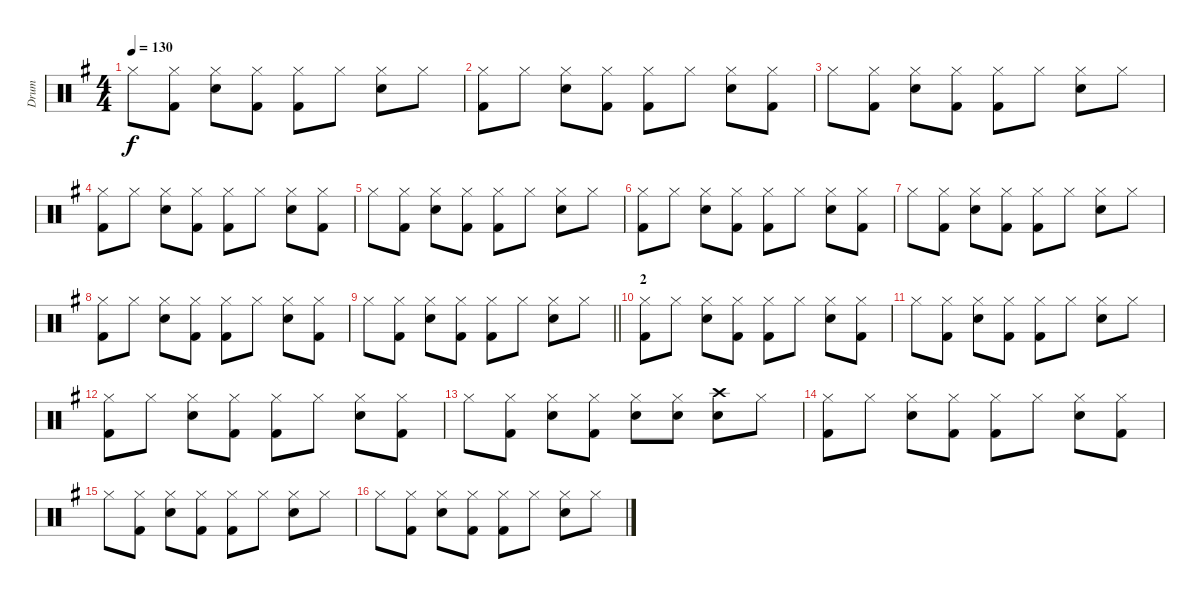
\track ("Drum" "Drum") {instrument percussion}
\staff {score}
\articulation defaults
\ts (4 4)
\tempo 130
\clef neutral
\ks g "Hi-Hat (closed)".8{dy f}
("Kick (hit) 2" "Hi-Hat (closed)").8 ("Hi-Hat (closed)" "Electric Snare (hit)").8 ("Kick (hit) 2" "Hi-Hat (closed)").8 ("Kick (hit) 2" "Hi-Hat (closed)").8 "Hi-Hat (closed)".8 ("Hi-Hat (closed)" "Electric Snare (hit)").8 "Hi-Hat (closed)".8 |
("Kick (hit) 2" "Hi-Hat (closed)").8 "Hi-Hat (closed)".8 ("Hi-Hat (closed)" "Electric Snare (hit)").8 ("Kick (hit) 2" "Hi-Hat (closed)").8 ("Kick (hit) 2" "Hi-Hat (closed)").8 "Hi-Hat (closed)".8 ("Hi-Hat (closed)" "Electric Snare (hit)").8 ("Kick (hit) 2" "Hi-Hat (closed)").8 |
"Hi-Hat (closed)".8 ("Kick (hit) 2" "Hi-Hat (closed)").8 ("Hi-Hat (closed)" "Electric Snare (hit)").8 ("Kick (hit) 2" "Hi-Hat (closed)").8 ("Kick (hit) 2" "Hi-Hat (closed)").8 "Hi-Hat (closed)".8 ("Hi-Hat (closed)" "Electric Snare (hit)").8 "Hi-Hat (closed)".8 |
("Kick (hit) 2" "Hi-Hat (closed)").8 "Hi-Hat (closed)".8 ("Hi-Hat (closed)" "Electric Snare (hit)").8 ("Kick (hit) 2" "Hi-Hat (closed)").8 ("Kick (hit) 2" "Hi-Hat (closed)").8 "Hi-Hat (closed)".8 ("Hi-Hat (closed)" "Electric Snare (hit)").8 ("Kick (hit) 2" "Hi-Hat (closed)").8 |
"Hi-Hat (closed)".8 ("Kick (hit) 2" "Hi-Hat (closed)").8 ("Hi-Hat (closed)" "Electric Snare (hit)").8 ("Kick (hit) 2" "Hi-Hat (closed)").8 ("Kick (hit) 2" "Hi-Hat (closed)").8 "Hi-Hat (closed)".8 ("Hi-Hat (closed)" "Electric Snare (hit)").8 "Hi-Hat (closed)".8 |
("Kick (hit) 2" "Hi-Hat (closed)").8 "Hi-Hat (closed)".8 ("Hi-Hat (closed)" "Electric Snare (hit)").8 ("Kick (hit) 2" "Hi-Hat (closed)").8 ("Kick (hit) 2" "Hi-Hat (closed)").8 "Hi-Hat (closed)".8 ("Hi-Hat (closed)" "Electric Snare (hit)").8 ("Kick (hit) 2" "Hi-Hat (closed)").8 |
"Hi-Hat (closed)".8 ("Kick (hit) 2" "Hi-Hat (closed)").8 ("Hi-Hat (closed)" "Electric Snare (hit)").8 ("Kick (hit) 2" "Hi-Hat (closed)").8 ("Kick (hit) 2" "Hi-Hat (closed)").8 "Hi-Hat (closed)".8 ("Hi-Hat (closed)" "Electric Snare (hit)").8 "Hi-Hat (closed)".8 |
("Kick (hit) 2" "Hi-Hat (closed)").8 "Hi-Hat (closed)".8 ("Hi-Hat (closed)" "Electric Snare (hit)").8 ("Kick (hit) 2" "Hi-Hat (closed)").8 ("Kick (hit) 2" "Hi-Hat (closed)").8 "Hi-Hat (closed)".8 ("Hi-Hat (closed)" "Electric Snare (hit)").8 ("Kick (hit) 2" "Hi-Hat (closed)").8 |
\barLineRight lightlight "Hi-Hat (closed)".8
("Kick (hit) 2" "Hi-Hat (closed)").8 ("Hi-Hat (closed)" "Electric Snare (hit)").8 ("Kick (hit) 2" "Hi-Hat (closed)").8 ("Kick (hit) 2" "Hi-Hat (closed)").8 "Hi-Hat (closed)".8 ("Hi-Hat (closed)" "Electric Snare (hit)").8 "Hi-Hat (closed)".8 |
\section ("" "2")
("Kick (hit) 2" "Hi-Hat (closed)").8 "Hi-Hat (closed)".8 ("Hi-Hat (closed)" "Electric Snare (hit)").8 ("Kick (hit) 2" "Hi-Hat (closed)").8 ("Kick (hit) 2" "Hi-Hat (closed)").8 "Hi-Hat (closed)".8 ("Hi-Hat (closed)" "Electric Snare (hit)").8 ("Kick (hit) 2" "Hi-Hat (closed)").8 |
"Hi-Hat (closed)".8 ("Kick (hit) 2" "Hi-Hat (closed)").8 ("Hi-Hat (closed)" "Electric Snare (hit)").8 ("Kick (hit) 2" "Hi-Hat (closed)").8 ("Kick (hit) 2" "Hi-Hat (closed)").8 "Hi-Hat (closed)".8 ("Hi-Hat (closed)" "Electric Snare (hit)").8 "Hi-Hat (closed)".8 |
("Kick (hit) 2" "Hi-Hat (closed)").8 "Hi-Hat (closed)".8 ("Hi-Hat (closed)" "Electric Snare (hit)").8 ("Kick (hit) 2" "Hi-Hat (closed)").8 ("Kick (hit) 2" "Hi-Hat (closed)").8 "Hi-Hat (closed)".8 ("Hi-Hat (closed)" "Electric Snare (hit)").8 ("Kick (hit) 2" "Hi-Hat (closed)").8 |
"Hi-Hat (closed)".8 ("Kick (hit) 2" "Hi-Hat (closed)").8 ("Hi-Hat (closed)" "Electric Snare (hit)").8 ("Kick (hit) 2" "Hi-Hat (closed)").8 ("Electric Snare (hit)" "Hi-Hat (closed)").8 ("Electric Snare (hit)" "Hi-Hat (closed)").8 ("Crash high (hit)" "Electric Snare (hit)").8 "Hi-Hat (closed)".8 |
("Kick (hit) 2" "Hi-Hat (closed)").8 "Hi-Hat (closed)".8 ("Hi-Hat (closed)" "Electric Snare (hit)").8 ("Kick (hit) 2" "Hi-Hat (closed)").8 ("Kick (hit) 2" "Hi-Hat (closed)").8 "Hi-Hat (closed)".8 ("Hi-Hat (closed)" "Electric Snare (hit)").8 ("Kick (hit) 2" "Hi-Hat (closed)").8 |
"Hi-Hat (closed)".8 ("Kick (hit) 2" "Hi-Hat (closed)").8 ("Hi-Hat (closed)" "Electric Snare (hit)").8 ("Kick (hit) 2" "Hi-Hat (closed)").8 ("Kick (hit) 2" "Hi-Hat (closed)").8 "Hi-Hat (closed)".8 ("Hi-Hat (closed)" "Electric Snare (hit)").8 "Hi-Hat (closed)".8 |
"Hi-Hat (closed)".8 ("Kick (hit) 2" "Hi-Hat (closed)").8 ("Hi-Hat (closed)" "Electric Snare (hit)").8 ("Kick (hit) 2" "Hi-Hat (closed)").8 ("Kick (hit) 2" "Hi-Hat (closed)").8 "Hi-Hat (closed)".8 ("Hi-Hat (closed)" "Electric Snare (hit)").8 "Hi-Hat (closed)".8
